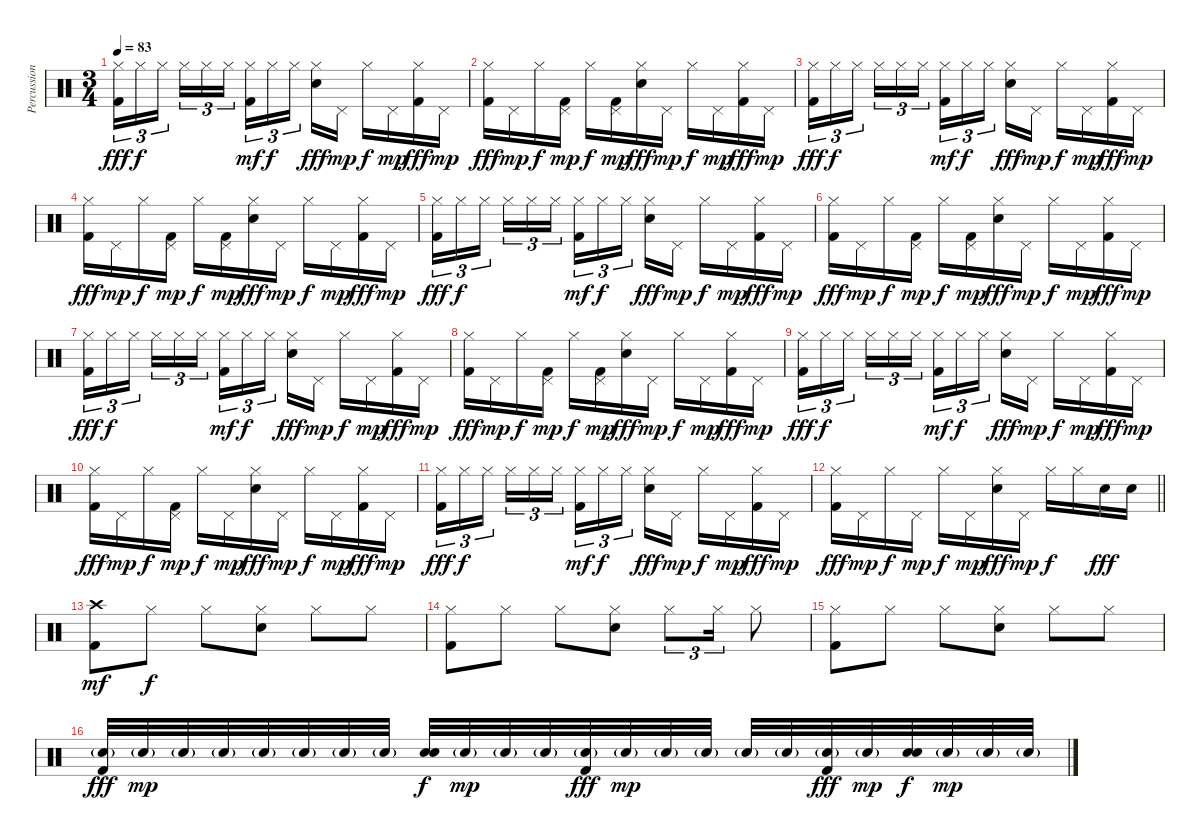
\track ("Percussions" "Percussion") {instrument percussion}
\staff {score}
\articulation defaults
\ts (3 4)
\tempo 83
\clef neutral
\ks c
("Kick (hit) 2" "Hi-Hat (closed)").16{tu (3 2) dy fff} "Hi-Hat (closed)".16{tu (3 2) dy f} "Hi-Hat (closed)".16{tu (3 2) beam splitsecondary} "Hi-Hat (closed)".16{tu (3 2)} "Hi-Hat (closed)".16{tu (3 2)} "Hi-Hat (closed)".16{tu (3 2)} ("Kick (hit) 2" "Hi-Hat (closed)").16{tu (3 2) dy mf} "Hi-Hat (closed)".16{tu (3 2) dy f} "Hi-Hat (closed)".16{tu (3 2) beam splitsecondary} ("Electric Snare (hit)" "Hi-Hat (closed)").16{dy fff} "Pedal Hi-Hat (hit)".16{dy mp} "Hi-Hat (closed)".16{dy f} "Pedal Hi-Hat (hit)".16{dy mp} ("Kick (hit) 2" "Hi-Hat (closed)").16{dy fff} "Pedal Hi-Hat (hit)".16{dy mp} |
("Kick (hit) 2" "Hi-Hat (closed)").16{dy fff} "Pedal Hi-Hat (hit)".16{dy mp} "Hi-Hat (closed)".16{dy f} ("Kick (hit) 2" "Pedal Hi-Hat (hit)").16{dy mp} "Hi-Hat (closed)".16{dy f} ("Kick (hit) 2" "Pedal Hi-Hat (hit)").16{dy mp} ("Electric Snare (hit)" "Hi-Hat (closed)").16{dy fff} "Pedal Hi-Hat (hit)".16{dy mp} "Hi-Hat (closed)".16{dy f} "Pedal Hi-Hat (hit)".16{dy mp} ("Kick (hit) 2" "Hi-Hat (closed)").16{dy fff} "Pedal Hi-Hat (hit)".16{dy mp} |
("Kick (hit) 2" "Hi-Hat (closed)").16{tu (3 2) dy fff} "Hi-Hat (closed)".16{tu (3 2) dy f} "Hi-Hat (closed)".16{tu (3 2) beam splitsecondary} "Hi-Hat (closed)".16{tu (3 2)} "Hi-Hat (closed)".16{tu (3 2)} "Hi-Hat (closed)".16{tu (3 2)} ("Kick (hit) 2" "Hi-Hat (closed)").16{tu (3 2) dy mf} "Hi-Hat (closed)".16{tu (3 2) dy f} "Hi-Hat (closed)".16{tu (3 2) beam splitsecondary} ("Electric Snare (hit)" "Hi-Hat (closed)").16{dy fff} "Pedal Hi-Hat (hit)".16{dy mp} "Hi-Hat (closed)".16{dy f} "Pedal Hi-Hat (hit)".16{dy mp} ("Kick (hit) 2" "Hi-Hat (closed)").16{dy fff} "Pedal Hi-Hat (hit)".16{dy mp} |
("Kick (hit) 2" "Hi-Hat (closed)").16{dy fff} "Pedal Hi-Hat (hit)".16{dy mp} "Hi-Hat (closed)".16{dy f} ("Kick (hit) 2" "Pedal Hi-Hat (hit)").16{dy mp} "Hi-Hat (closed)".16{dy f} ("Kick (hit) 2" "Pedal Hi-Hat (hit)").16{dy mp} ("Electric Snare (hit)" "Hi-Hat (closed)").16{dy fff} "Pedal Hi-Hat (hit)".16{dy mp} "Hi-Hat (closed)".16{dy f} "Pedal Hi-Hat (hit)".16{dy mp} ("Kick (hit) 2" "Hi-Hat (closed)").16{dy fff} "Pedal Hi-Hat (hit)".16{dy mp} |
("Kick (hit) 2" "Hi-Hat (closed)").16{tu (3 2) dy fff} "Hi-Hat (closed)".16{tu (3 2) dy f} "Hi-Hat (closed)".16{tu (3 2) beam splitsecondary} "Hi-Hat (closed)".16{tu (3 2)} "Hi-Hat (closed)".16{tu (3 2)} "Hi-Hat (closed)".16{tu (3 2)} ("Kick (hit) 2" "Hi-Hat (closed)").16{tu (3 2) dy mf} "Hi-Hat (closed)".16{tu (3 2) dy f} "Hi-Hat (closed)".16{tu (3 2) beam splitsecondary} ("Electric Snare (hit)" "Hi-Hat (closed)").16{dy fff} "Pedal Hi-Hat (hit)".16{dy mp} "Hi-Hat (closed)".16{dy f} "Pedal Hi-Hat (hit)".16{dy mp} ("Kick (hit) 2" "Hi-Hat (closed)").16{dy fff} "Pedal Hi-Hat (hit)".16{dy mp} |
("Kick (hit) 2" "Hi-Hat (closed)").16{dy fff} "Pedal Hi-Hat (hit)".16{dy mp} "Hi-Hat (closed)".16{dy f} ("Kick (hit) 2" "Pedal Hi-Hat (hit)").16{dy mp} "Hi-Hat (closed)".16{dy f} ("Kick (hit) 2" "Pedal Hi-Hat (hit)").16{dy mp} ("Electric Snare (hit)" "Hi-Hat (closed)").16{dy fff} "Pedal Hi-Hat (hit)".16{dy mp} "Hi-Hat (closed)".16{dy f} "Pedal Hi-Hat (hit)".16{dy mp} ("Kick (hit) 2" "Hi-Hat (closed)").16{dy fff} "Pedal Hi-Hat (hit)".16{dy mp} |
("Kick (hit) 2" "Hi-Hat (closed)").16{tu (3 2) dy fff} "Hi-Hat (closed)".16{tu (3 2) dy f} "Hi-Hat (closed)".16{tu (3 2) beam splitsecondary} "Hi-Hat (closed)".16{tu (3 2)} "Hi-Hat (closed)".16{tu (3 2)} "Hi-Hat (closed)".16{tu (3 2)} ("Kick (hit) 2" "Hi-Hat (closed)").16{tu (3 2) dy mf} "Hi-Hat (closed)".16{tu (3 2) dy f} "Hi-Hat (closed)".16{tu (3 2) beam splitsecondary} ("Electric Snare (hit)" "Hi-Hat (closed)").16{dy fff} "Pedal Hi-Hat (hit)".16{dy mp} "Hi-Hat (closed)".16{dy f} "Pedal Hi-Hat (hit)".16{dy mp} ("Kick (hit) 2" "Hi-Hat (closed)").16{dy fff} "Pedal Hi-Hat (hit)".16{dy mp} |
("Kick (hit) 2" "Hi-Hat (closed)").16{dy fff} "Pedal Hi-Hat (hit)".16{dy mp} "Hi-Hat (closed)".16{dy f} ("Kick (hit) 2" "Pedal Hi-Hat (hit)").16{dy mp} "Hi-Hat (closed)".16{dy f} ("Kick (hit) 2" "Pedal Hi-Hat (hit)").16{dy mp} ("Electric Snare (hit)" "Hi-Hat (closed)").16{dy fff} "Pedal Hi-Hat (hit)".16{dy mp} "Hi-Hat (closed)".16{dy f} "Pedal Hi-Hat (hit)".16{dy mp} ("Kick (hit) 2" "Hi-Hat (closed)").16{dy fff} "Pedal Hi-Hat (hit)".16{dy mp} |
("Kick (hit) 2" "Hi-Hat (closed)").16{tu (3 2) dy fff} "Hi-Hat (closed)".16{tu (3 2) dy f} "Hi-Hat (closed)".16{tu (3 2) beam splitsecondary} "Hi-Hat (closed)".16{tu (3 2)} "Hi-Hat (closed)".16{tu (3 2)} "Hi-Hat (closed)".16{tu (3 2)} ("Kick (hit) 2" "Hi-Hat (closed)").16{tu (3 2) dy mf} "Hi-Hat (closed)".16{tu (3 2) dy f} "Hi-Hat (closed)".16{tu (3 2) beam splitsecondary} ("Electric Snare (hit)" "Hi-Hat (closed)").16{dy fff} "Pedal Hi-Hat (hit)".16{dy mp} "Hi-Hat (closed)".16{dy f} "Pedal Hi-Hat (hit)".16{dy mp} ("Kick (hit) 2" "Hi-Hat (closed)").16{dy fff} "Pedal Hi-Hat (hit)".16{dy mp} |
("Kick (hit) 2" "Hi-Hat (closed)").16{dy fff} "Pedal Hi-Hat (hit)".16{dy mp} "Hi-Hat (closed)".16{dy f} ("Kick (hit) 2" "Pedal Hi-Hat (hit)").16{dy mp} "Hi-Hat (closed)".16{dy f} "Pedal Hi-Hat (hit)".16{dy mp} ("Electric Snare (hit)" "Hi-Hat (closed)").16{dy fff} "Pedal Hi-Hat (hit)".16{dy mp} "Hi-Hat (closed)".16{dy f} "Pedal Hi-Hat (hit)".16{dy mp} ("Kick (hit) 2" "Hi-Hat (closed)").16{dy fff} "Pedal Hi-Hat (hit)".16{dy mp} |
("Kick (hit) 2" "Hi-Hat (closed)").16{tu (3 2) dy fff} "Hi-Hat (closed)".16{tu (3 2) dy f} "Hi-Hat (closed)".16{tu (3 2) beam splitsecondary} "Hi-Hat (closed)".16{tu (3 2)} "Hi-Hat (closed)".16{tu (3 2)} "Hi-Hat (closed)".16{tu (3 2)} ("Kick (hit) 2" "Hi-Hat (closed)").16{tu (3 2) dy mf} "Hi-Hat (closed)".16{tu (3 2) dy f} "Hi-Hat (closed)".16{tu (3 2) beam splitsecondary} ("Electric Snare (hit)" "Hi-Hat (closed)").16{dy fff} "Pedal Hi-Hat (hit)".16{dy mp} "Hi-Hat (closed)".16{dy f} "Pedal Hi-Hat (hit)".16{dy mp} ("Kick (hit) 2" "Hi-Hat (closed)").16{dy fff} "Pedal Hi-Hat (hit)".16{dy mp} |
\barLineRight lightlight
("Kick (hit) 2" "Hi-Hat (closed)").16{dy fff} "Pedal Hi-Hat (hit)".16{dy mp} "Hi-Hat (closed)".16{dy f} "Pedal Hi-Hat (hit)".16{dy mp} "Hi-Hat (closed)".16{dy f} "Pedal Hi-Hat (hit)".16{dy mp} ("Electric Snare (hit)" "Hi-Hat (closed)").16{dy fff} "Pedal Hi-Hat (hit)".16{dy mp} "Hi-Hat (closed)".16{dy f} "Hi-Hat (closed)".16 "Electric Snare (hit)".16{dy fff} "Electric Snare (hit)".16 |
\section ("" "")
("Kick (hit) 2" "Crash high (hit)").8{dy mf} "Hi-Hat (closed)".8{dy f} "Hi-Hat (closed)".8 ("Electric Snare (hit)" "Hi-Hat (closed)").8 "Hi-Hat (closed)".8 "Hi-Hat (closed)".8 |
("Kick (hit) 2" "Hi-Hat (closed)").8 "Hi-Hat (closed)".8 "Hi-Hat (closed)".8 ("Electric Snare (hit)" "Hi-Hat (closed)").8 "Hi-Hat (closed)".8{tu (3 2)} "Hi-Hat (closed)".16{tu (3 2)} "Hi-Hat (closed)".8 |
("Kick (hit) 2" "Hi-Hat (closed)").8 "Hi-Hat (closed)".8 "Hi-Hat (closed)".8 ("Electric Snare (hit)" "Hi-Hat (closed)").8 "Hi-Hat (closed)".8 "Hi-Hat (closed)".8 |
("Electric Snare (hit)"{g} "Kick (hit) 2").32{dy fff} "Electric Snare (hit)"{g}.32{dy mp} "Electric Snare (hit)"{g}.32 "Electric Snare (hit)"{g}.32 "Electric Snare (hit)"{g}.32 "Electric Snare (hit)"{g}.32 "Electric Snare (hit)"{g}.32 "Electric Snare (hit)"{g}.32 ("Electric Snare (hit)" "Electric Snare (hit)").32{dy f} "Electric Snare (hit)"{g}.32{dy mp} "Electric Snare (hit)"{g}.32 "Electric Snare (hit)"{g}.32 ("Electric Snare (hit)"{g} "Kick (hit) 2").32{dy fff} "Electric Snare (hit)"{g}.32{dy mp} "Electric Snare (hit)"{g}.32 "Electric Snare (hit)"{g}.32 "Electric Snare (hit)"{g}.32 "Electric Snare (hit)"{g}.32 ("Electric Snare (hit)"{g} "Kick (hit) 2").32{dy fff} "Electric Snare (hit)"{g}.32{dy mp} ("Electric Snare (hit)" "Electric Snare (hit)").32{dy f} "Electric Snare (hit)"{g}.32{dy mp} "Electric Snare (hit)"{g}.32 "Electric Snare (hit)"{g}.32
